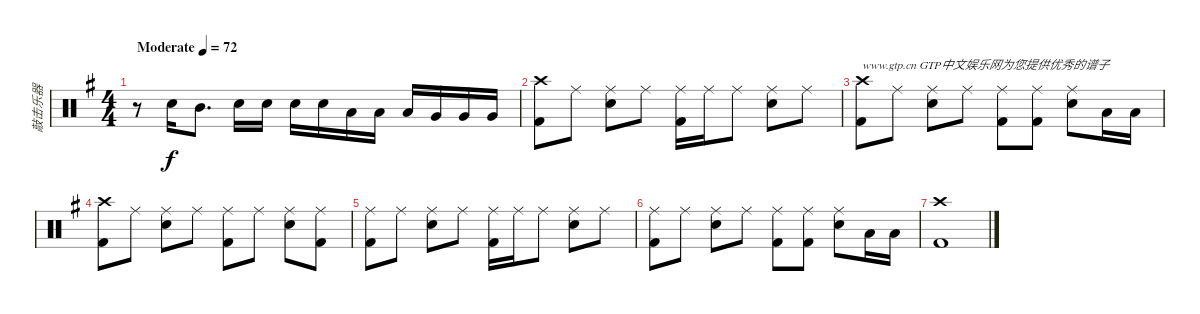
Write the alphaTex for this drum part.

\track ("敲击乐器" "敲击乐器") {instrument percussion}
\staff {score}
\articulation defaults
\ts (4 4)
\tempo (72 "Moderate")
\clef neutral
\ks g
r.8{dy f} "Snare (hit) 2".16 "Mid Tom (hit)".8{d} "Snare (hit) 2".16 "Snare (hit) 2".16 "Snare (hit) 2".16 "Snare (hit) 2".16 "Low Tom (hit)".16 "Low Tom (hit)".16 "Low Tom (hit)".16 "Very Low Tom (hit)".16 "Very Low Tom (hit)".16 "Very Low Tom (hit)".16 |
("Crash high (hit)" "Kick (hit) 2").8 "Ride (middle)".8 ("Ride (middle)" "Snare (hit) 2").8 "Ride (middle)".8 ("Ride (middle)" "Kick (hit) 2").16 "Ride (middle)".16 "Ride (middle)".8 ("Ride (middle)" "Snare (hit) 2").8 "Ride (middle)".8 |
("Crash high (hit)" "Kick (hit) 2").8{txt "www.gtp.cn GTP中文娱乐网为您提供优秀的谱子"} "Ride (middle)".8 ("Ride (middle)" "Snare (hit) 2").8 "Ride (middle)".8 ("Ride (middle)" "Kick (hit) 2").8 ("Ride (middle)" "Kick (hit) 2").8 ("Ride (middle)" "Snare (hit) 2").8 "Low Tom (hit)".16 "Low Tom (hit)".16 |
("Crash high (hit)" "Kick (hit) 2").8 "Ride (middle)".8 ("Ride (middle)" "Snare (hit) 2").8 "Ride (middle)".8 ("Ride (middle)" "Kick (hit) 2").8 "Ride (middle)".8 ("Ride (middle)" "Snare (hit) 2").8 ("Ride (middle)" "Kick (hit) 2").8 |
("Ride (middle)" "Kick (hit) 2").8 "Ride (middle)".8 ("Ride (middle)" "Snare (hit) 2").8 "Ride (middle)".8 ("Ride (middle)" "Kick (hit) 2").16 "Ride (middle)".16 "Ride (middle)".8 ("Ride (middle)" "Snare (hit) 2").8 "Ride (middle)".8 |
("Ride (middle)" "Kick (hit) 2").8 "Ride (middle)".8 ("Ride (middle)" "Snare (hit) 2").8 "Ride (middle)".8 ("Ride (middle)" "Kick (hit) 2").8 ("Ride (middle)" "Kick (hit) 2").8 ("Ride (middle)" "Snare (hit) 2").8 "Low Tom (hit)".16 "Low Tom (hit)".16 |
("Crash high (hit)" "Kick (hit) 2").1
